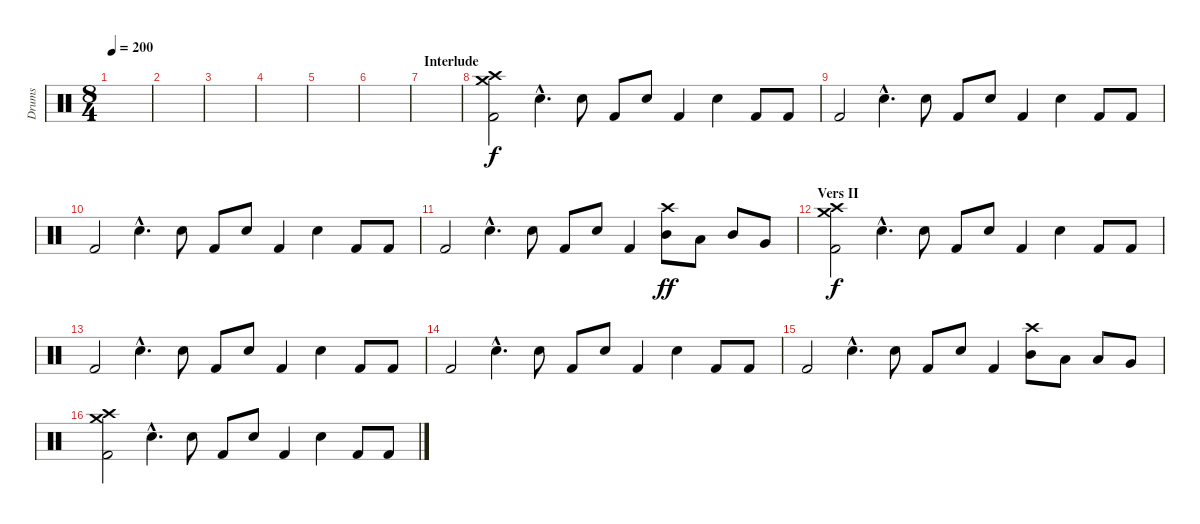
\track ("Drums" "Drums") {instrument percussion}
\staff {score}
\articulation defaults
\ts (8 4)
\tempo 200
\clef neutral
\ks c
|
|
|
|
|
|
\section ("" "Interlude")
|
("Crash high (hit)" "Kick (hit) 2" "Crash medium (hit)").2 "Electric Snare (hit)"{hac}.4{d} "Electric Snare (hit)".8 "Kick (hit) 2".8 "Electric Snare (hit)".8 "Kick (hit) 2".4 "Electric Snare (hit)".4 "Kick (hit) 2".8 "Kick (hit) 2".8 |
"Kick (hit) 2".2 "Electric Snare (hit)"{hac}.4{d} "Electric Snare (hit)".8 "Kick (hit) 2".8 "Electric Snare (hit)".8 "Kick (hit) 2".4 "Electric Snare (hit)".4 "Kick (hit) 2".8 "Kick (hit) 2".8 |
"Kick (hit) 2".2 "Electric Snare (hit)"{hac}.4{d} "Electric Snare (hit)".8 "Kick (hit) 2".8 "Electric Snare (hit)".8 "Kick (hit) 2".4 "Electric Snare (hit)".4 "Kick (hit) 2".8 "Kick (hit) 2".8 |
"Kick (hit) 2".2 "Electric Snare (hit)"{hac}.4{d} "Electric Snare (hit)".8 "Kick (hit) 2".8 "Electric Snare (hit)".8 "Kick (hit) 2".4 ("Mid Tom (hit)" "Crash high (hit)").8{dy ff} "Low Tom (hit)".8 "Mid Tom (hit)".8 "Very Low Tom (hit)".8 |
\section ("" "Vers II")
("Crash high (hit)" "Kick (hit) 2" "Crash medium (hit)").2{dy f} "Electric Snare (hit)"{hac}.4{d} "Electric Snare (hit)".8 "Kick (hit) 2".8 "Electric Snare (hit)".8 "Kick (hit) 2".4 "Electric Snare (hit)".4 "Kick (hit) 2".8 "Kick (hit) 2".8 |
"Kick (hit) 2".2 "Electric Snare (hit)"{hac}.4{d} "Electric Snare (hit)".8 "Kick (hit) 2".8 "Electric Snare (hit)".8 "Kick (hit) 2".4 "Electric Snare (hit)".4 "Kick (hit) 2".8 "Kick (hit) 2".8 |
"Kick (hit) 2".2 "Electric Snare (hit)"{hac}.4{d} "Electric Snare (hit)".8 "Kick (hit) 2".8 "Electric Snare (hit)".8 "Kick (hit) 2".4 "Electric Snare (hit)".4 "Kick (hit) 2".8 "Kick (hit) 2".8 |
"Kick (hit) 2".2 "Electric Snare (hit)"{hac}.4{d} "Electric Snare (hit)".8 "Kick (hit) 2".8 "Electric Snare (hit)".8 "Kick (hit) 2".4 ("Mid Tom (hit)" "Crash high (hit)").8 "Low Tom (hit)".8 "Low Tom (hit)".8 "Very Low Tom (hit)".8 |
("Crash high (hit)" "Kick (hit) 2" "Crash medium (hit)").2 "Electric Snare (hit)"{hac}.4{d} "Electric Snare (hit)".8 "Kick (hit) 2".8 "Electric Snare (hit)".8 "Kick (hit) 2".4 "Electric Snare (hit)".4 "Kick (hit) 2".8 "Kick (hit) 2".8
